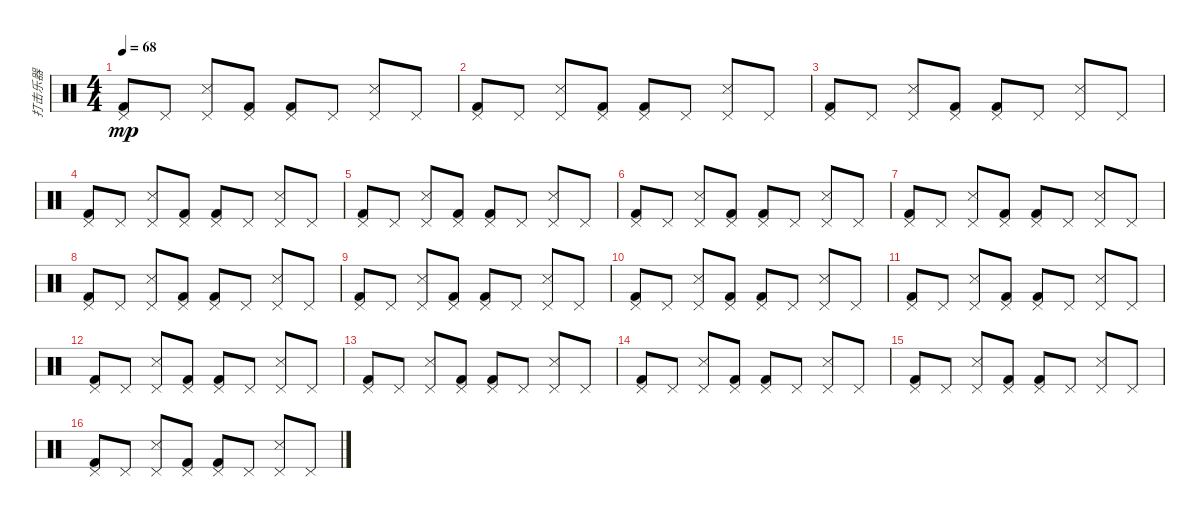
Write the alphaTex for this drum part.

\track ("打击乐器" "打击乐器") {instrument percussion}
\staff {score}
\articulation defaults
\ts (4 4)
\tempo 68
\clef neutral
\ks c
("Pedal Hi-Hat (hit)" "Kick (hit) 2").8{dy mp} "Pedal Hi-Hat (hit)".8 ("Pedal Hi-Hat (hit)" "Snare (side stick) 3").8 ("Pedal Hi-Hat (hit)" "Kick (hit) 2").8 ("Pedal Hi-Hat (hit)" "Kick (hit) 2").8 "Pedal Hi-Hat (hit)".8 ("Pedal Hi-Hat (hit)" "Snare (side stick) 3").8 "Pedal Hi-Hat (hit)".8 |
("Pedal Hi-Hat (hit)" "Kick (hit) 2").8 "Pedal Hi-Hat (hit)".8 ("Pedal Hi-Hat (hit)" "Snare (side stick) 3").8 ("Pedal Hi-Hat (hit)" "Kick (hit) 2").8 ("Pedal Hi-Hat (hit)" "Kick (hit) 2").8 "Pedal Hi-Hat (hit)".8 ("Pedal Hi-Hat (hit)" "Snare (side stick) 3").8 "Pedal Hi-Hat (hit)".8 |
("Pedal Hi-Hat (hit)" "Kick (hit) 2").8 "Pedal Hi-Hat (hit)".8 ("Pedal Hi-Hat (hit)" "Snare (side stick) 3").8 ("Pedal Hi-Hat (hit)" "Kick (hit) 2").8 ("Pedal Hi-Hat (hit)" "Kick (hit) 2").8 "Pedal Hi-Hat (hit)".8 ("Pedal Hi-Hat (hit)" "Snare (side stick) 3").8 "Pedal Hi-Hat (hit)".8 |
("Pedal Hi-Hat (hit)" "Kick (hit) 2").8 "Pedal Hi-Hat (hit)".8 ("Pedal Hi-Hat (hit)" "Snare (side stick) 3").8 ("Pedal Hi-Hat (hit)" "Kick (hit) 2").8 ("Pedal Hi-Hat (hit)" "Kick (hit) 2").8 "Pedal Hi-Hat (hit)".8 ("Pedal Hi-Hat (hit)" "Snare (side stick) 3").8 "Pedal Hi-Hat (hit)".8 |
("Pedal Hi-Hat (hit)" "Kick (hit) 2").8 "Pedal Hi-Hat (hit)".8 ("Pedal Hi-Hat (hit)" "Snare (side stick) 3").8 ("Pedal Hi-Hat (hit)" "Kick (hit) 2").8 ("Pedal Hi-Hat (hit)" "Kick (hit) 2").8 "Pedal Hi-Hat (hit)".8 ("Pedal Hi-Hat (hit)" "Snare (side stick) 3").8 "Pedal Hi-Hat (hit)".8 |
("Pedal Hi-Hat (hit)" "Kick (hit) 2").8 "Pedal Hi-Hat (hit)".8 ("Pedal Hi-Hat (hit)" "Snare (side stick) 3").8 ("Pedal Hi-Hat (hit)" "Kick (hit) 2").8 ("Pedal Hi-Hat (hit)" "Kick (hit) 2").8 "Pedal Hi-Hat (hit)".8 ("Pedal Hi-Hat (hit)" "Snare (side stick) 3").8 "Pedal Hi-Hat (hit)".8 |
("Pedal Hi-Hat (hit)" "Kick (hit) 2").8 "Pedal Hi-Hat (hit)".8 ("Pedal Hi-Hat (hit)" "Snare (side stick) 3").8 ("Pedal Hi-Hat (hit)" "Kick (hit) 2").8 ("Pedal Hi-Hat (hit)" "Kick (hit) 2").8 "Pedal Hi-Hat (hit)".8 ("Pedal Hi-Hat (hit)" "Snare (side stick) 3").8 "Pedal Hi-Hat (hit)".8 |
("Pedal Hi-Hat (hit)" "Kick (hit) 2").8 "Pedal Hi-Hat (hit)".8 ("Pedal Hi-Hat (hit)" "Snare (side stick) 3").8 ("Pedal Hi-Hat (hit)" "Kick (hit) 2").8 ("Pedal Hi-Hat (hit)" "Kick (hit) 2").8 "Pedal Hi-Hat (hit)".8 ("Pedal Hi-Hat (hit)" "Snare (side stick) 3").8 "Pedal Hi-Hat (hit)".8 |
("Pedal Hi-Hat (hit)" "Kick (hit) 2").8 "Pedal Hi-Hat (hit)".8 ("Pedal Hi-Hat (hit)" "Snare (side stick) 3").8 ("Pedal Hi-Hat (hit)" "Kick (hit) 2").8 ("Pedal Hi-Hat (hit)" "Kick (hit) 2").8 "Pedal Hi-Hat (hit)".8 ("Pedal Hi-Hat (hit)" "Snare (side stick) 3").8 "Pedal Hi-Hat (hit)".8 |
("Pedal Hi-Hat (hit)" "Kick (hit) 2").8 "Pedal Hi-Hat (hit)".8 ("Pedal Hi-Hat (hit)" "Snare (side stick) 3").8 ("Pedal Hi-Hat (hit)" "Kick (hit) 2").8 ("Pedal Hi-Hat (hit)" "Kick (hit) 2").8 "Pedal Hi-Hat (hit)".8 ("Pedal Hi-Hat (hit)" "Snare (side stick) 3").8 "Pedal Hi-Hat (hit)".8 |
("Pedal Hi-Hat (hit)" "Kick (hit) 2").8 "Pedal Hi-Hat (hit)".8 ("Pedal Hi-Hat (hit)" "Snare (side stick) 3").8 ("Pedal Hi-Hat (hit)" "Kick (hit) 2").8 ("Pedal Hi-Hat (hit)" "Kick (hit) 2").8 "Pedal Hi-Hat (hit)".8 ("Pedal Hi-Hat (hit)" "Snare (side stick) 3").8 "Pedal Hi-Hat (hit)".8 |
("Pedal Hi-Hat (hit)" "Kick (hit) 2").8 "Pedal Hi-Hat (hit)".8 ("Pedal Hi-Hat (hit)" "Snare (side stick) 3").8 ("Pedal Hi-Hat (hit)" "Kick (hit) 2").8 ("Pedal Hi-Hat (hit)" "Kick (hit) 2").8 "Pedal Hi-Hat (hit)".8 ("Pedal Hi-Hat (hit)" "Snare (side stick) 3").8 "Pedal Hi-Hat (hit)".8 |
("Pedal Hi-Hat (hit)" "Kick (hit) 2").8 "Pedal Hi-Hat (hit)".8 ("Pedal Hi-Hat (hit)" "Snare (side stick) 3").8 ("Pedal Hi-Hat (hit)" "Kick (hit) 2").8 ("Pedal Hi-Hat (hit)" "Kick (hit) 2").8 "Pedal Hi-Hat (hit)".8 ("Pedal Hi-Hat (hit)" "Snare (side stick) 3").8 "Pedal Hi-Hat (hit)".8 |
("Pedal Hi-Hat (hit)" "Kick (hit) 2").8 "Pedal Hi-Hat (hit)".8 ("Pedal Hi-Hat (hit)" "Snare (side stick) 3").8 ("Pedal Hi-Hat (hit)" "Kick (hit) 2").8 ("Pedal Hi-Hat (hit)" "Kick (hit) 2").8 "Pedal Hi-Hat (hit)".8 ("Pedal Hi-Hat (hit)" "Snare (side stick) 3").8 "Pedal Hi-Hat (hit)".8 |
("Pedal Hi-Hat (hit)" "Kick (hit) 2").8 "Pedal Hi-Hat (hit)".8 ("Pedal Hi-Hat (hit)" "Snare (side stick) 3").8 ("Pedal Hi-Hat (hit)" "Kick (hit) 2").8 ("Pedal Hi-Hat (hit)" "Kick (hit) 2").8 "Pedal Hi-Hat (hit)".8 ("Pedal Hi-Hat (hit)" "Snare (side stick) 3").8 "Pedal Hi-Hat (hit)".8 |
("Pedal Hi-Hat (hit)" "Kick (hit) 2").8 "Pedal Hi-Hat (hit)".8 ("Pedal Hi-Hat (hit)" "Snare (side stick) 3").8 ("Pedal Hi-Hat (hit)" "Kick (hit) 2").8 ("Pedal Hi-Hat (hit)" "Kick (hit) 2").8 "Pedal Hi-Hat (hit)".8 ("Pedal Hi-Hat (hit)" "Snare (side stick) 3").8 "Pedal Hi-Hat (hit)".8
